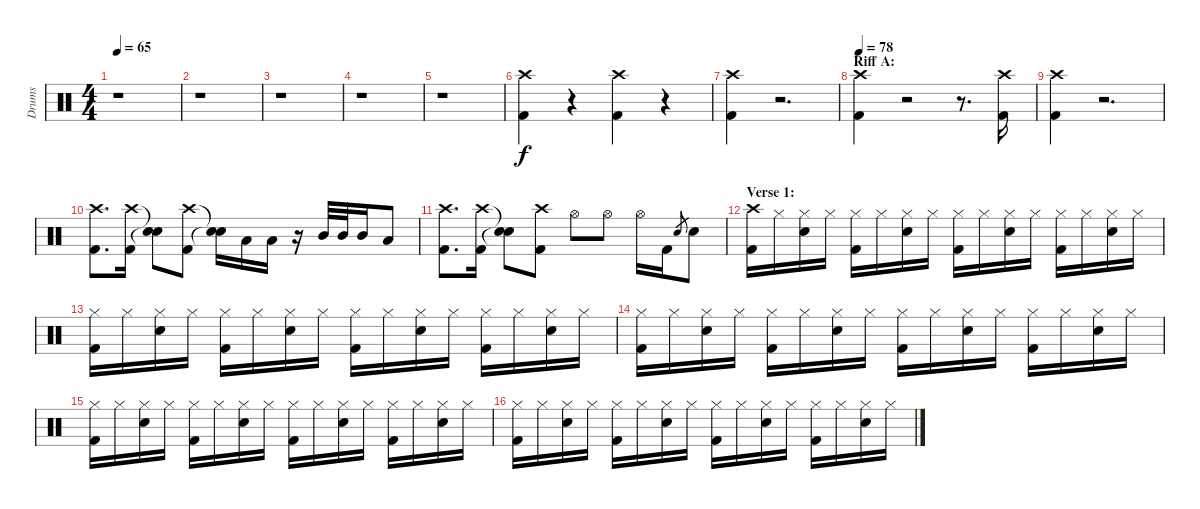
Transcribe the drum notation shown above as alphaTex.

\track ("Drums" "Drums") {instrument percussion}
\staff {score}
\articulation defaults
\ts (4 4)
\tempo 65
\clef neutral
\ks c
r.1{dy f} |
r.1 |
r.1 |
r.1 |
r.1 |
("Crash high (hit)" "Kick (hit) 2").4 r.4 ("Crash high (hit)" "Kick (hit) 2").4 r.4 |
("Crash high (hit)" "Kick (hit) 2").4 r.2{d} |
\section ("" "Riff A:")
\tempo 78
("Crash high (hit)" "Kick (hit) 2").4 r.2 r.8{d} ("Crash high (hit)" "Kick (hit) 2").16 |
("Crash high (hit)" "Kick (hit) 2").4 r.2{d} |
("Crash high (hit)" "Kick (hit) 2").8{d} ("Crash high (hit)" "Kick (hit) 2").16 ("Snare (hit)"{t} "Snare (hit)"{t}).8 ("Crash high (hit)" "Kick (hit) 2").8 ("Snare (hit)"{t} "Snare (hit)"{t}).16 "Low Tom (hit)".16 "Low Tom (hit)".16 r.16 "Mid Tom (hit)".32 "Mid Tom (hit)".32 "Mid Tom (hit)".16 "Low Tom (hit)".8 |
("Crash high (hit)" "Kick (hit) 2").8{d} ("Crash high (hit)" "Kick (hit) 2").16 ("Snare (hit)"{t} "Snare (hit)"{t}).8 ("Crash high (hit)" "Kick (hit) 2").8 "Hi-Hat (open)".8 "Hi-Hat (open)".8 "Hi-Hat (open)".16 "Kick (hit) 2".16 "Snare (hit) 2".8{gr} "Snare (hit) 2".8 |
\section ("" "Verse 1:")
("Crash high (hit)" "Kick (hit) 2").16 "Hi-Hat (closed)".16 ("Hi-Hat (closed)" "Snare (hit) 2").16 "Hi-Hat (closed)".16 ("Hi-Hat (closed)" "Kick (hit) 2").16 "Hi-Hat (closed)".16 ("Hi-Hat (closed)" "Snare (hit) 2").16 "Hi-Hat (closed)".16 ("Hi-Hat (closed)" "Kick (hit) 2").16 "Hi-Hat (closed)".16 ("Hi-Hat (closed)" "Snare (hit) 2").16 "Hi-Hat (closed)".16 ("Hi-Hat (closed)" "Kick (hit) 2").16 "Hi-Hat (closed)".16 ("Hi-Hat (closed)" "Snare (hit) 2").16 "Hi-Hat (closed)".16 |
("Hi-Hat (closed)" "Kick (hit) 2").16 "Hi-Hat (closed)".16 ("Hi-Hat (closed)" "Snare (hit) 2").16 "Hi-Hat (closed)".16 ("Hi-Hat (closed)" "Kick (hit) 2").16 "Hi-Hat (closed)".16 ("Hi-Hat (closed)" "Snare (hit) 2").16 "Hi-Hat (closed)".16 ("Hi-Hat (closed)" "Kick (hit) 2").16 "Hi-Hat (closed)".16 ("Hi-Hat (closed)" "Snare (hit) 2").16 "Hi-Hat (closed)".16 ("Hi-Hat (closed)" "Kick (hit) 2").16 "Hi-Hat (closed)".16 ("Hi-Hat (closed)" "Snare (hit) 2").16 "Hi-Hat (closed)".16 |
("Hi-Hat (closed)" "Kick (hit) 2").16 "Hi-Hat (closed)".16 ("Hi-Hat (closed)" "Snare (hit) 2").16 "Hi-Hat (closed)".16 ("Hi-Hat (closed)" "Kick (hit) 2").16 "Hi-Hat (closed)".16 ("Hi-Hat (closed)" "Snare (hit) 2").16 "Hi-Hat (closed)".16 ("Hi-Hat (closed)" "Kick (hit) 2").16 "Hi-Hat (closed)".16 ("Hi-Hat (closed)" "Snare (hit) 2").16 "Hi-Hat (closed)".16 ("Hi-Hat (closed)" "Kick (hit) 2").16 "Hi-Hat (closed)".16 ("Hi-Hat (closed)" "Snare (hit) 2").16 "Hi-Hat (closed)".16 |
("Hi-Hat (closed)" "Kick (hit) 2").16 "Hi-Hat (closed)".16 ("Hi-Hat (closed)" "Snare (hit) 2").16 "Hi-Hat (closed)".16 ("Hi-Hat (closed)" "Kick (hit) 2").16 "Hi-Hat (closed)".16 ("Hi-Hat (closed)" "Snare (hit) 2").16 "Hi-Hat (closed)".16 ("Hi-Hat (closed)" "Kick (hit) 2").16 "Hi-Hat (closed)".16 ("Hi-Hat (closed)" "Snare (hit) 2").16 "Hi-Hat (closed)".16 ("Hi-Hat (closed)" "Kick (hit) 2").16 "Hi-Hat (closed)".16 ("Hi-Hat (closed)" "Snare (hit) 2").16 "Hi-Hat (closed)".16 |
("Hi-Hat (closed)" "Kick (hit) 2").16 "Hi-Hat (closed)".16 ("Hi-Hat (closed)" "Snare (hit) 2").16 "Hi-Hat (closed)".16 ("Hi-Hat (closed)" "Kick (hit) 2").16 "Hi-Hat (closed)".16 ("Hi-Hat (closed)" "Snare (hit) 2").16 "Hi-Hat (closed)".16 ("Hi-Hat (closed)" "Kick (hit) 2").16 "Hi-Hat (closed)".16 ("Hi-Hat (closed)" "Snare (hit) 2").16 "Hi-Hat (closed)".16 ("Hi-Hat (closed)" "Kick (hit) 2").16 "Hi-Hat (closed)".16 ("Hi-Hat (closed)" "Snare (hit) 2").16 "Hi-Hat (closed)".16
